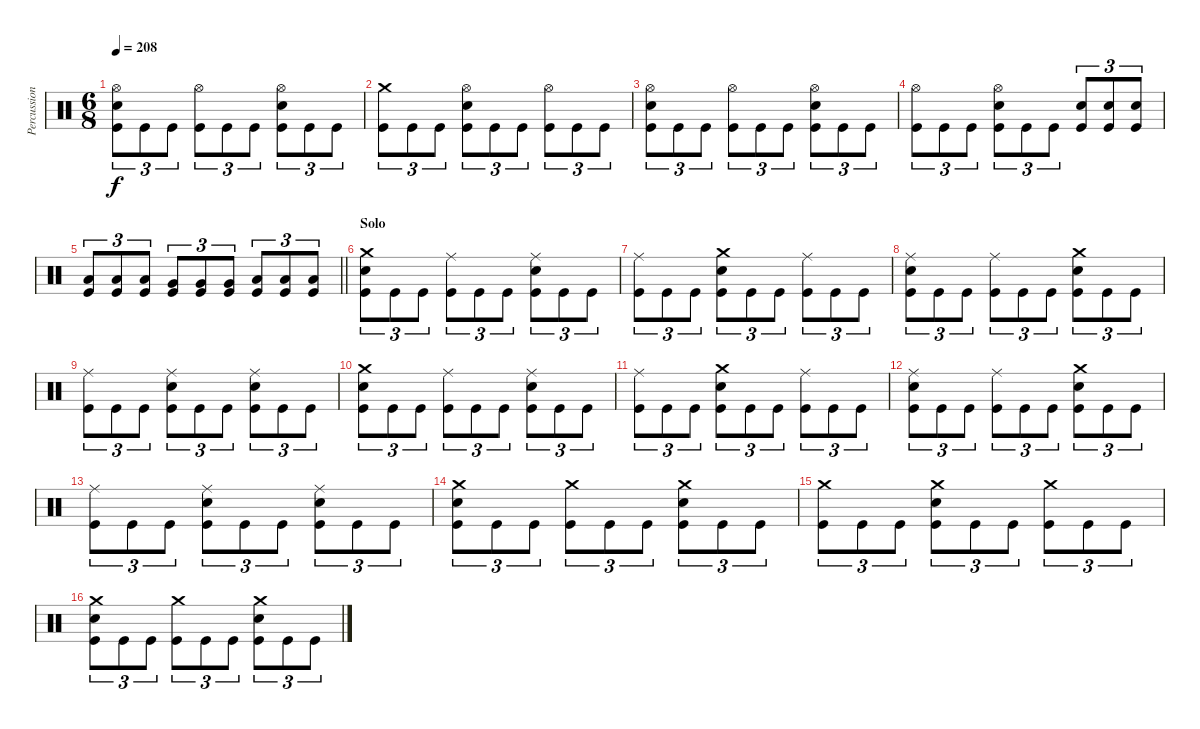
\track ("Percussion" "Percussion") {instrument percussion}
\staff {score}
\articulation defaults
\ts (6 8)
\tempo 208
\clef neutral
\ks c
("Hi-Hat (open)" "Electric Snare (hit)" "Kick (hit)").8{tu (3 2) dy f} "Kick (hit)".8{tu (3 2)} "Kick (hit)".8{tu (3 2)} ("Hi-Hat (open)" "Kick (hit)").8{tu (3 2)} "Kick (hit)".8{tu (3 2)} "Kick (hit)".8{tu (3 2)} ("Hi-Hat (open)" "Electric Snare (hit)" "Kick (hit)").8{tu (3 2)} "Kick (hit)".8{tu (3 2)} "Kick (hit)".8{tu (3 2)} |
("Crash medium (hit)" "Kick (hit)").8{tu (3 2)} "Kick (hit)".8{tu (3 2)} "Kick (hit)".8{tu (3 2)} ("Hi-Hat (open)" "Electric Snare (hit)" "Kick (hit)").8{tu (3 2)} "Kick (hit)".8{tu (3 2)} "Kick (hit)".8{tu (3 2)} ("Hi-Hat (open)" "Kick (hit)").8{tu (3 2)} "Kick (hit)".8{tu (3 2)} "Kick (hit)".8{tu (3 2)} |
("Hi-Hat (open)" "Electric Snare (hit)" "Kick (hit)").8{tu (3 2)} "Kick (hit)".8{tu (3 2)} "Kick (hit)".8{tu (3 2)} ("Hi-Hat (open)" "Kick (hit)").8{tu (3 2)} "Kick (hit)".8{tu (3 2)} "Kick (hit)".8{tu (3 2)} ("Hi-Hat (open)" "Electric Snare (hit)" "Kick (hit)").8{tu (3 2)} "Kick (hit)".8{tu (3 2)} "Kick (hit)".8{tu (3 2)} |
("Hi-Hat (open)" "Kick (hit)").8{tu (3 2)} "Kick (hit)".8{tu (3 2)} "Kick (hit)".8{tu (3 2)} ("Hi-Hat (open)" "Electric Snare (hit)" "Kick (hit)").8{tu (3 2)} "Kick (hit)".8{tu (3 2)} "Kick (hit)".8{tu (3 2)} ("Electric Snare (hit)" "Kick (hit)").8{tu (3 2)} ("Electric Snare (hit)" "Kick (hit)").8{tu (3 2)} ("Electric Snare (hit)" "Kick (hit)").8{tu (3 2)} |
\barLineRight lightlight
("Low Tom (hit)" "Kick (hit)").8{tu (3 2)} ("Low Tom (hit)" "Kick (hit)").8{tu (3 2)} ("Low Tom (hit)" "Kick (hit)").8{tu (3 2)} ("Very Low Tom (hit)" "Kick (hit)").8{tu (3 2)} ("Very Low Tom (hit)" "Kick (hit)").8{tu (3 2)} ("Very Low Tom (hit)" "Kick (hit)").8{tu (3 2)} ("Low Floor Tom (hit)" "Kick (hit)").8{tu (3 2)} ("Low Floor Tom (hit)" "Kick (hit)").8{tu (3 2)} ("Low Floor Tom (hit)" "Kick (hit)").8{tu (3 2)} |
\section ("" "Solo")
("Crash medium (hit)" "Electric Snare (hit)" "Kick (hit)").8{tu (3 2)} "Kick (hit)".8{tu (3 2)} "Kick (hit)".8{tu (3 2)} ("Ride (middle)" "Kick (hit)").8{tu (3 2)} "Kick (hit)".8{tu (3 2)} "Kick (hit)".8{tu (3 2)} ("Ride (middle)" "Electric Snare (hit)" "Kick (hit)").8{tu (3 2)} "Kick (hit)".8{tu (3 2)} "Kick (hit)".8{tu (3 2)} |
("Ride (middle)" "Kick (hit)").8{tu (3 2)} "Kick (hit)".8{tu (3 2)} "Kick (hit)".8{tu (3 2)} ("Crash medium (hit)" "Electric Snare (hit)" "Kick (hit)").8{tu (3 2)} "Kick (hit)".8{tu (3 2)} "Kick (hit)".8{tu (3 2)} ("Ride (middle)" "Kick (hit)").8{tu (3 2)} "Kick (hit)".8{tu (3 2)} "Kick (hit)".8{tu (3 2)} |
("Ride (middle)" "Electric Snare (hit)" "Kick (hit)").8{tu (3 2)} "Kick (hit)".8{tu (3 2)} "Kick (hit)".8{tu (3 2)} ("Ride (middle)" "Kick (hit)").8{tu (3 2)} "Kick (hit)".8{tu (3 2)} "Kick (hit)".8{tu (3 2)} ("Crash medium (hit)" "Electric Snare (hit)" "Kick (hit)").8{tu (3 2)} "Kick (hit)".8{tu (3 2)} "Kick (hit)".8{tu (3 2)} |
("Ride (middle)" "Kick (hit)").8{tu (3 2)} "Kick (hit)".8{tu (3 2)} "Kick (hit)".8{tu (3 2)} ("Ride (middle)" "Electric Snare (hit)" "Kick (hit)").8{tu (3 2)} "Kick (hit)".8{tu (3 2)} "Kick (hit)".8{tu (3 2)} ("Ride (middle)" "Electric Snare (hit)" "Kick (hit)").8{tu (3 2)} "Kick (hit)".8{tu (3 2)} "Kick (hit)".8{tu (3 2)} |
("Crash medium (hit)" "Electric Snare (hit)" "Kick (hit)").8{tu (3 2)} "Kick (hit)".8{tu (3 2)} "Kick (hit)".8{tu (3 2)} ("Ride (middle)" "Kick (hit)").8{tu (3 2)} "Kick (hit)".8{tu (3 2)} "Kick (hit)".8{tu (3 2)} ("Ride (middle)" "Electric Snare (hit)" "Kick (hit)").8{tu (3 2)} "Kick (hit)".8{tu (3 2)} "Kick (hit)".8{tu (3 2)} |
("Ride (middle)" "Kick (hit)").8{tu (3 2)} "Kick (hit)".8{tu (3 2)} "Kick (hit)".8{tu (3 2)} ("Crash medium (hit)" "Electric Snare (hit)" "Kick (hit)").8{tu (3 2)} "Kick (hit)".8{tu (3 2)} "Kick (hit)".8{tu (3 2)} ("Ride (middle)" "Kick (hit)").8{tu (3 2)} "Kick (hit)".8{tu (3 2)} "Kick (hit)".8{tu (3 2)} |
("Ride (middle)" "Electric Snare (hit)" "Kick (hit)").8{tu (3 2)} "Kick (hit)".8{tu (3 2)} "Kick (hit)".8{tu (3 2)} ("Ride (middle)" "Kick (hit)").8{tu (3 2)} "Kick (hit)".8{tu (3 2)} "Kick (hit)".8{tu (3 2)} ("Crash medium (hit)" "Electric Snare (hit)" "Kick (hit)").8{tu (3 2)} "Kick (hit)".8{tu (3 2)} "Kick (hit)".8{tu (3 2)} |
("Ride (middle)" "Kick (hit)").8{tu (3 2)} "Kick (hit)".8{tu (3 2)} "Kick (hit)".8{tu (3 2)} ("Ride (middle)" "Electric Snare (hit)" "Kick (hit)").8{tu (3 2)} "Kick (hit)".8{tu (3 2)} "Kick (hit)".8{tu (3 2)} ("Ride (middle)" "Electric Snare (hit)" "Kick (hit)").8{tu (3 2)} "Kick (hit)".8{tu (3 2)} "Kick (hit)".8{tu (3 2)} |
("Crash medium (hit)" "Electric Snare (hit)" "Kick (hit)").8{tu (3 2)} "Kick (hit)".8{tu (3 2)} "Kick (hit)".8{tu (3 2)} ("Crash medium (hit)" "Kick (hit)").8{tu (3 2)} "Kick (hit)".8{tu (3 2)} "Kick (hit)".8{tu (3 2)} ("Crash medium (hit)" "Electric Snare (hit)" "Kick (hit)").8{tu (3 2)} "Kick (hit)".8{tu (3 2)} "Kick (hit)".8{tu (3 2)} |
("Crash medium (hit)" "Kick (hit)").8{tu (3 2)} "Kick (hit)".8{tu (3 2)} "Kick (hit)".8{tu (3 2)} ("Crash medium (hit)" "Electric Snare (hit)" "Kick (hit)").8{tu (3 2)} "Kick (hit)".8{tu (3 2)} "Kick (hit)".8{tu (3 2)} ("Crash medium (hit)" "Kick (hit)").8{tu (3 2)} "Kick (hit)".8{tu (3 2)} "Kick (hit)".8{tu (3 2)} |
("Crash medium (hit)" "Electric Snare (hit)" "Kick (hit)").8{tu (3 2)} "Kick (hit)".8{tu (3 2)} "Kick (hit)".8{tu (3 2)} ("Crash medium (hit)" "Kick (hit)").8{tu (3 2)} "Kick (hit)".8{tu (3 2)} "Kick (hit)".8{tu (3 2)} ("Crash medium (hit)" "Electric Snare (hit)" "Kick (hit)").8{tu (3 2)} "Kick (hit)".8{tu (3 2)} "Kick (hit)".8{tu (3 2)}
